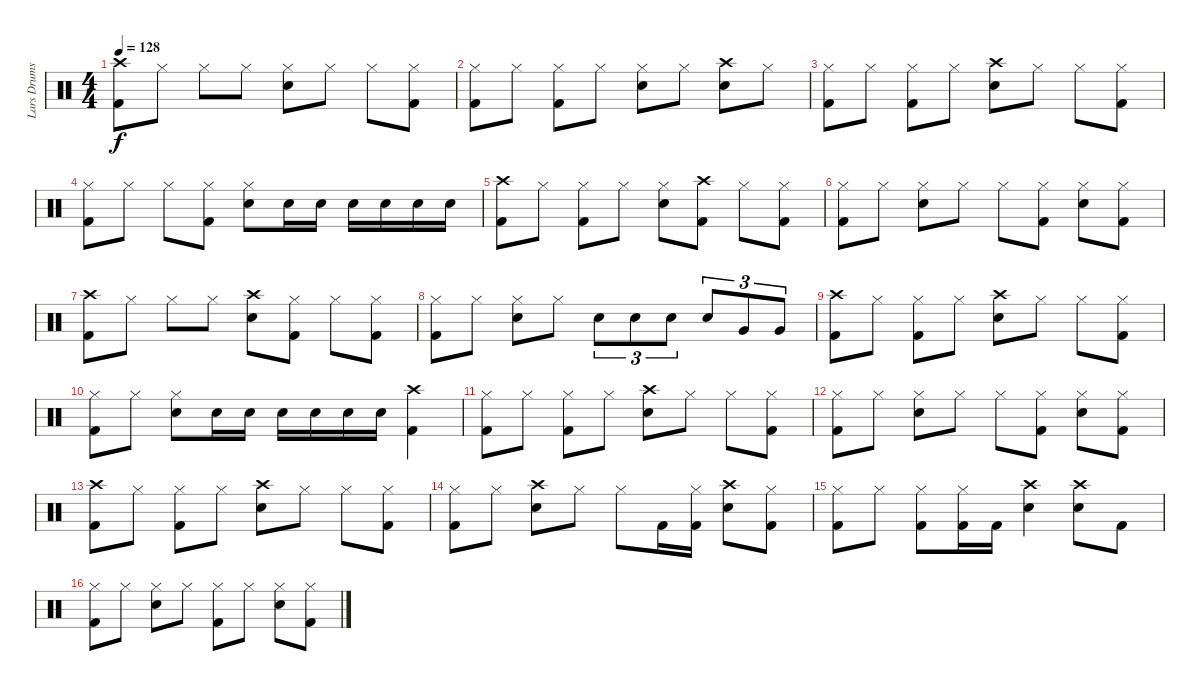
\track ("Lars Drums" "Lars Drums") {instrument percussion}
\staff {score}
\articulation defaults
\ts (4 4)
\tempo 128
\clef neutral
\ks c
("Crash high (hit)" "Kick (hit) 2").8{dy f} "Hi-Hat (closed)".8 "Hi-Hat (closed)".8 "Hi-Hat (closed)".8 ("Hi-Hat (closed)" "Electric Snare (hit)").8 "Hi-Hat (closed)".8 "Hi-Hat (closed)".8 ("Hi-Hat (closed)" "Kick (hit) 2").8 |
("Hi-Hat (closed)" "Kick (hit) 2").8 "Hi-Hat (closed)".8 ("Hi-Hat (closed)" "Kick (hit) 2").8 "Hi-Hat (closed)".8 ("Hi-Hat (closed)" "Electric Snare (hit)").8 "Hi-Hat (closed)".8 ("Crash high (hit)" "Electric Snare (hit)").8 "Hi-Hat (closed)".8 |
("Hi-Hat (closed)" "Kick (hit) 2").8 "Hi-Hat (closed)".8 ("Hi-Hat (closed)" "Kick (hit) 2").8 "Hi-Hat (closed)".8 ("Crash high (hit)" "Electric Snare (hit)").8 "Hi-Hat (closed)".8 "Hi-Hat (closed)".8 ("Hi-Hat (closed)" "Kick (hit) 2").8 |
("Hi-Hat (closed)" "Kick (hit) 2").8 "Hi-Hat (closed)".8 "Hi-Hat (closed)".8 ("Hi-Hat (closed)" "Kick (hit) 2").8 ("Hi-Hat (closed)" "Electric Snare (hit)").8 "Electric Snare (hit)".16 "Electric Snare (hit)".16 "Electric Snare (hit)".16 "Electric Snare (hit)".16 "Electric Snare (hit)".16 "Electric Snare (hit)".16 |
("Crash high (hit)" "Kick (hit) 2").8 "Hi-Hat (closed)".8 ("Hi-Hat (closed)" "Kick (hit) 2").8 "Hi-Hat (closed)".8 ("Hi-Hat (closed)" "Electric Snare (hit)").8 ("Crash high (hit)" "Kick (hit) 2").8 "Hi-Hat (closed)".8 ("Hi-Hat (closed)" "Kick (hit) 2").8 |
("Hi-Hat (closed)" "Kick (hit) 2").8 "Hi-Hat (closed)".8 ("Hi-Hat (closed)" "Electric Snare (hit)").8 "Hi-Hat (closed)".8 "Hi-Hat (closed)".8 ("Hi-Hat (closed)" "Kick (hit) 2").8 ("Hi-Hat (closed)" "Electric Snare (hit)").8 ("Hi-Hat (closed)" "Kick (hit) 2").8 |
("Crash high (hit)" "Kick (hit) 2").8 "Hi-Hat (closed)".8 "Hi-Hat (closed)".8 "Hi-Hat (closed)".8 ("Crash high (hit)" "Electric Snare (hit)").8 ("Hi-Hat (closed)" "Kick (hit) 2").8 "Hi-Hat (closed)".8 ("Hi-Hat (closed)" "Kick (hit) 2").8 |
("Hi-Hat (closed)" "Kick (hit) 2").8 "Hi-Hat (closed)".8 ("Hi-Hat (closed)" "Electric Snare (hit)").8 "Hi-Hat (closed)".8 "Electric Snare (hit)".8{tu (3 2)} "Electric Snare (hit)".8{tu (3 2)} "Electric Snare (hit)".8{tu (3 2)} "Electric Snare (hit)".8{tu (3 2)} "Very Low Tom (hit)".8{tu (3 2)} "Very Low Tom (hit)".8{tu (3 2)} |
("Crash high (hit)" "Kick (hit) 2").8 "Hi-Hat (closed)".8 ("Hi-Hat (closed)" "Kick (hit) 2").8 "Hi-Hat (closed)".8 ("Crash high (hit)" "Electric Snare (hit)").8 "Hi-Hat (closed)".8 "Hi-Hat (closed)".8 ("Hi-Hat (closed)" "Kick (hit) 2").8 |
("Hi-Hat (closed)" "Kick (hit) 2").8 "Hi-Hat (closed)".8 ("Hi-Hat (closed)" "Electric Snare (hit)").8 "Electric Snare (hit)".16 "Electric Snare (hit)".16 "Electric Snare (hit)".16 "Electric Snare (hit)".16 "Electric Snare (hit)".16 "Electric Snare (hit)".16 ("Crash high (hit)" "Kick (hit) 2").4 |
("Hi-Hat (closed)" "Kick (hit) 2").8 "Hi-Hat (closed)".8 ("Hi-Hat (closed)" "Kick (hit) 2").8 "Hi-Hat (closed)".8 ("Crash high (hit)" "Electric Snare (hit)").8 "Hi-Hat (closed)".8 "Hi-Hat (closed)".8 ("Hi-Hat (closed)" "Kick (hit) 2").8 |
("Hi-Hat (closed)" "Kick (hit) 2").8 "Hi-Hat (closed)".8 ("Hi-Hat (closed)" "Electric Snare (hit)").8 "Hi-Hat (closed)".8 "Hi-Hat (closed)".8 ("Hi-Hat (closed)" "Kick (hit) 2").8 ("Hi-Hat (closed)" "Electric Snare (hit)").8 ("Hi-Hat (closed)" "Kick (hit) 2").8 |
("Crash high (hit)" "Kick (hit) 2").8 "Hi-Hat (closed)".8 ("Hi-Hat (closed)" "Kick (hit) 2").8 "Hi-Hat (closed)".8 ("Crash high (hit)" "Electric Snare (hit)").8 "Hi-Hat (closed)".8 "Hi-Hat (closed)".8 ("Hi-Hat (closed)" "Kick (hit) 2").8 |
("Hi-Hat (closed)" "Kick (hit) 2").8 "Hi-Hat (closed)".8 ("Crash high (hit)" "Electric Snare (hit)").8 "Hi-Hat (closed)".8 "Hi-Hat (closed)".8 "Kick (hit) 2".16 ("Hi-Hat (closed)" "Kick (hit) 2").16 ("Crash high (hit)" "Electric Snare (hit)").8 ("Hi-Hat (closed)" "Kick (hit) 2").8 |
("Hi-Hat (closed)" "Kick (hit) 2").8 "Hi-Hat (closed)".8 ("Hi-Hat (closed)" "Kick (hit) 2").8 ("Hi-Hat (closed)" "Kick (hit) 2").16 "Kick (hit) 2".16 ("Crash high (hit)" "Electric Snare (hit)").4 ("Crash high (hit)" "Electric Snare (hit)").8 "Kick (hit) 2".8 |
("Hi-Hat (closed)" "Kick (hit) 2").8 "Hi-Hat (closed)".8 ("Hi-Hat (closed)" "Electric Snare (hit)").8 "Hi-Hat (closed)".8 ("Hi-Hat (closed)" "Kick (hit) 2").8 "Hi-Hat (closed)".8 ("Hi-Hat (closed)" "Electric Snare (hit)").8 ("Hi-Hat (closed)" "Kick (hit) 2").8
